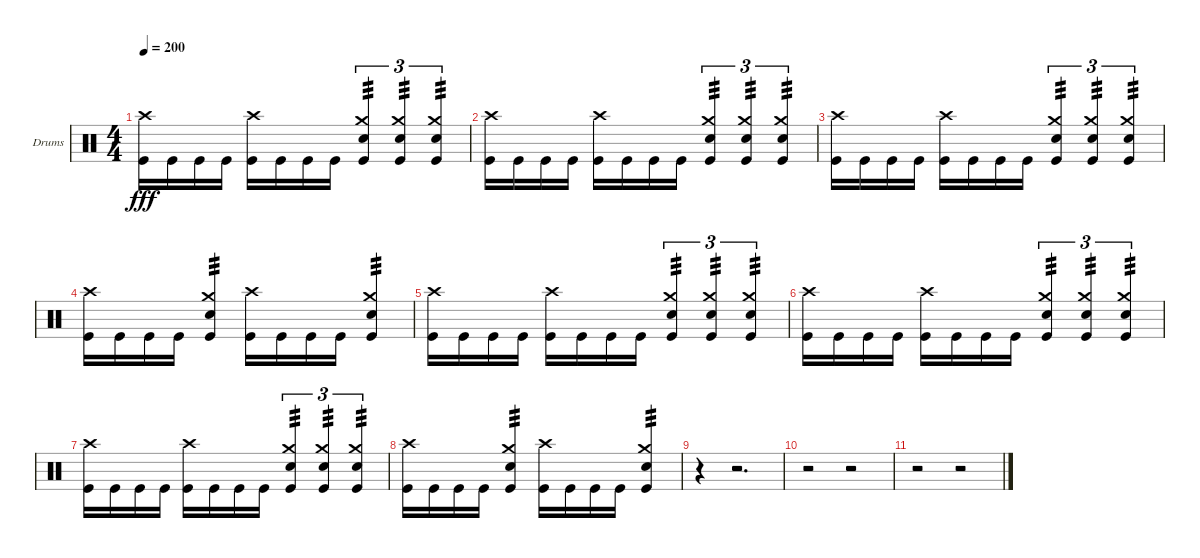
\bracketExtendMode groupsimilarinstruments
\firstSystemTrackNameOrientation horizontal
\otherSystemsTrackNameOrientation horizontal
\track ("Drumkit" "Drums") {instrument percussion}
\staff {score}
\articulation defaults
\ts (4 4)
\tempo 200
\clef neutral
\ks c
("Crash high (hit)" "Kick (hit)").16{dy fff} "Kick (hit)".16 "Kick (hit)".16 "Kick (hit)".16 ("Crash high (hit)" "Kick (hit)").16 "Kick (hit)".16 "Kick (hit)".16 "Kick (hit)".16 ("Crash medium (hit)" "Snare (hit) 2" "Kick (hit)").4{tu (3 2) tp 3} ("Crash medium (hit)" "Snare (hit) 2" "Kick (hit)").4{tu (3 2) tp 3} ("Crash medium (hit)" "Snare (hit) 2" "Kick (hit)").4{tu (3 2) tp 3} |
("Crash high (hit)" "Kick (hit)").16 "Kick (hit)".16 "Kick (hit)".16 "Kick (hit)".16 ("Crash high (hit)" "Kick (hit)").16 "Kick (hit)".16 "Kick (hit)".16 "Kick (hit)".16 ("Crash medium (hit)" "Snare (hit) 2" "Kick (hit)").4{tu (3 2) tp 3} ("Crash medium (hit)" "Snare (hit) 2" "Kick (hit)").4{tu (3 2) tp 3} ("Crash medium (hit)" "Snare (hit) 2" "Kick (hit)").4{tu (3 2) tp 3} |
("Crash high (hit)" "Kick (hit)").16 "Kick (hit)".16 "Kick (hit)".16 "Kick (hit)".16 ("Crash high (hit)" "Kick (hit)").16 "Kick (hit)".16 "Kick (hit)".16 "Kick (hit)".16 ("Crash medium (hit)" "Snare (hit) 2" "Kick (hit)").4{tu (3 2) tp 3} ("Crash medium (hit)" "Snare (hit) 2" "Kick (hit)").4{tu (3 2) tp 3} ("Crash medium (hit)" "Snare (hit) 2" "Kick (hit)").4{tu (3 2) tp 3} |
("Crash high (hit)" "Kick (hit)").16 "Kick (hit)".16 "Kick (hit)".16 "Kick (hit)".16 ("Crash medium (hit)" "Snare (hit) 2" "Kick (hit)").4{tp 3} ("Crash high (hit)" "Kick (hit)").16 "Kick (hit)".16 "Kick (hit)".16 "Kick (hit)".16 ("Crash medium (hit)" "Snare (hit) 2" "Kick (hit)").4{tp 3} |
("Crash high (hit)" "Kick (hit)").16 "Kick (hit)".16 "Kick (hit)".16 "Kick (hit)".16 ("Crash high (hit)" "Kick (hit)").16 "Kick (hit)".16 "Kick (hit)".16 "Kick (hit)".16 ("Crash medium (hit)" "Snare (hit) 2" "Kick (hit)").4{tu (3 2) tp 3} ("Crash medium (hit)" "Snare (hit) 2" "Kick (hit)").4{tu (3 2) tp 3} ("Crash medium (hit)" "Snare (hit) 2" "Kick (hit)").4{tu (3 2) tp 3} |
("Crash high (hit)" "Kick (hit)").16 "Kick (hit)".16 "Kick (hit)".16 "Kick (hit)".16 ("Crash high (hit)" "Kick (hit)").16 "Kick (hit)".16 "Kick (hit)".16 "Kick (hit)".16 ("Crash medium (hit)" "Snare (hit) 2" "Kick (hit)").4{tu (3 2) tp 3} ("Crash medium (hit)" "Snare (hit) 2" "Kick (hit)").4{tu (3 2) tp 3} ("Crash medium (hit)" "Snare (hit) 2" "Kick (hit)").4{tu (3 2) tp 3} |
("Crash high (hit)" "Kick (hit)").16 "Kick (hit)".16 "Kick (hit)".16 "Kick (hit)".16 ("Crash high (hit)" "Kick (hit)").16 "Kick (hit)".16 "Kick (hit)".16 "Kick (hit)".16 ("Crash medium (hit)" "Snare (hit) 2" "Kick (hit)").4{tu (3 2) tp 3} ("Crash medium (hit)" "Snare (hit) 2" "Kick (hit)").4{tu (3 2) tp 3} ("Crash medium (hit)" "Snare (hit) 2" "Kick (hit)").4{tu (3 2) tp 3} |
("Crash high (hit)" "Kick (hit)").16 "Kick (hit)".16 "Kick (hit)".16 "Kick (hit)".16 ("Crash medium (hit)" "Snare (hit) 2" "Kick (hit)").4{tp 3} ("Crash high (hit)" "Kick (hit)").16 "Kick (hit)".16 "Kick (hit)".16 "Kick (hit)".16 ("Crash medium (hit)" "Snare (hit) 2" "Kick (hit)").4{tp 3} |
r.4 r.2{d} |
r.2 r.2 |
r.2 r.2
